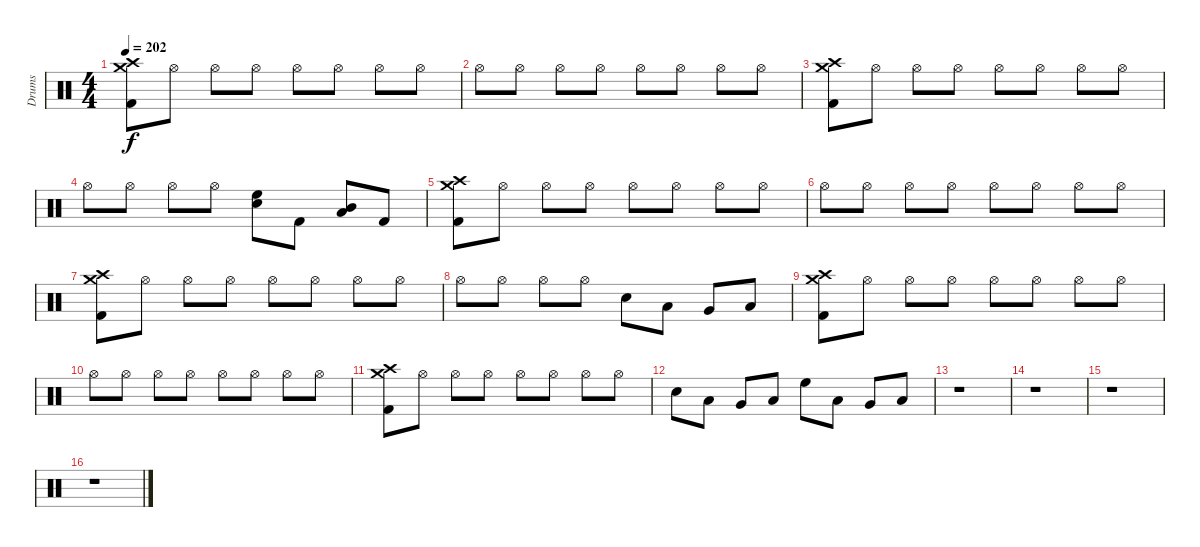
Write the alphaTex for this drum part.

\track ("Drums" "Drums") {instrument percussion}
\staff {score}
\articulation defaults
\ts (4 4)
\tempo 202
\clef neutral
\ks c
("Crash medium (hit)" "Crash high (hit)" "Kick (hit) 2").8{dy f} "Hi-Hat (open)".8 "Hi-Hat (open)".8 "Hi-Hat (open)".8 "Hi-Hat (open)".8 "Hi-Hat (open)".8 "Hi-Hat (open)".8 "Hi-Hat (open)".8 |
"Hi-Hat (open)".8 "Hi-Hat (open)".8 "Hi-Hat (open)".8 "Hi-Hat (open)".8 "Hi-Hat (open)".8 "Hi-Hat (open)".8 "Hi-Hat (open)".8 "Hi-Hat (open)".8 |
("Crash medium (hit)" "Crash high (hit)" "Kick (hit) 2").8 "Hi-Hat (open)".8 "Hi-Hat (open)".8 "Hi-Hat (open)".8 "Hi-Hat (open)".8 "Hi-Hat (open)".8 "Hi-Hat (open)".8 "Hi-Hat (open)".8 |
"Hi-Hat (open)".8 "Hi-Hat (open)".8 "Hi-Hat (open)".8 "Hi-Hat (open)".8 ("High Floor Tom (hit)" "Electric Snare (hit)").8 "Kick (hit) 2".8 ("Mid Tom (hit)" "Low Tom (hit)").8 "Kick (hit) 2".8 |
("Crash medium (hit)" "Crash high (hit)" "Kick (hit) 2").8 "Hi-Hat (open)".8 "Hi-Hat (open)".8 "Hi-Hat (open)".8 "Hi-Hat (open)".8 "Hi-Hat (open)".8 "Hi-Hat (open)".8 "Hi-Hat (open)".8 |
"Hi-Hat (open)".8 "Hi-Hat (open)".8 "Hi-Hat (open)".8 "Hi-Hat (open)".8 "Hi-Hat (open)".8 "Hi-Hat (open)".8 "Hi-Hat (open)".8 "Hi-Hat (open)".8 |
("Crash medium (hit)" "Crash high (hit)" "Kick (hit) 2").8 "Hi-Hat (open)".8 "Hi-Hat (open)".8 "Hi-Hat (open)".8 "Hi-Hat (open)".8 "Hi-Hat (open)".8 "Hi-Hat (open)".8 "Hi-Hat (open)".8 |
"Hi-Hat (open)".8 "Hi-Hat (open)".8 "Hi-Hat (open)".8 "Hi-Hat (open)".8 "Electric Snare (hit)".8 "Low Tom (hit)".8 "Very Low Tom (hit)".8 "Low Floor Tom (hit)".8 |
("Crash medium (hit)" "Crash high (hit)" "Kick (hit) 2").8 "Hi-Hat (open)".8 "Hi-Hat (open)".8 "Hi-Hat (open)".8 "Hi-Hat (open)".8 "Hi-Hat (open)".8 "Hi-Hat (open)".8 "Hi-Hat (open)".8 |
"Hi-Hat (open)".8 "Hi-Hat (open)".8 "Hi-Hat (open)".8 "Hi-Hat (open)".8 "Hi-Hat (open)".8 "Hi-Hat (open)".8 "Hi-Hat (open)".8 "Hi-Hat (open)".8 |
("Crash medium (hit)" "Crash high (hit)" "Kick (hit) 2").8 "Hi-Hat (open)".8 "Hi-Hat (open)".8 "Hi-Hat (open)".8 "Hi-Hat (open)".8 "Hi-Hat (open)".8 "Hi-Hat (open)".8 "Hi-Hat (open)".8 |
"Electric Snare (hit)".8 "Low Tom (hit)".8 "Very Low Tom (hit)".8 "Low Floor Tom (hit)".8 "High Floor Tom (hit)".8 "Low Tom (hit)".8 "Very Low Tom (hit)".8 "Low Floor Tom (hit)".8 |
r.1 |
r.1 |
r.1 |
r.1
